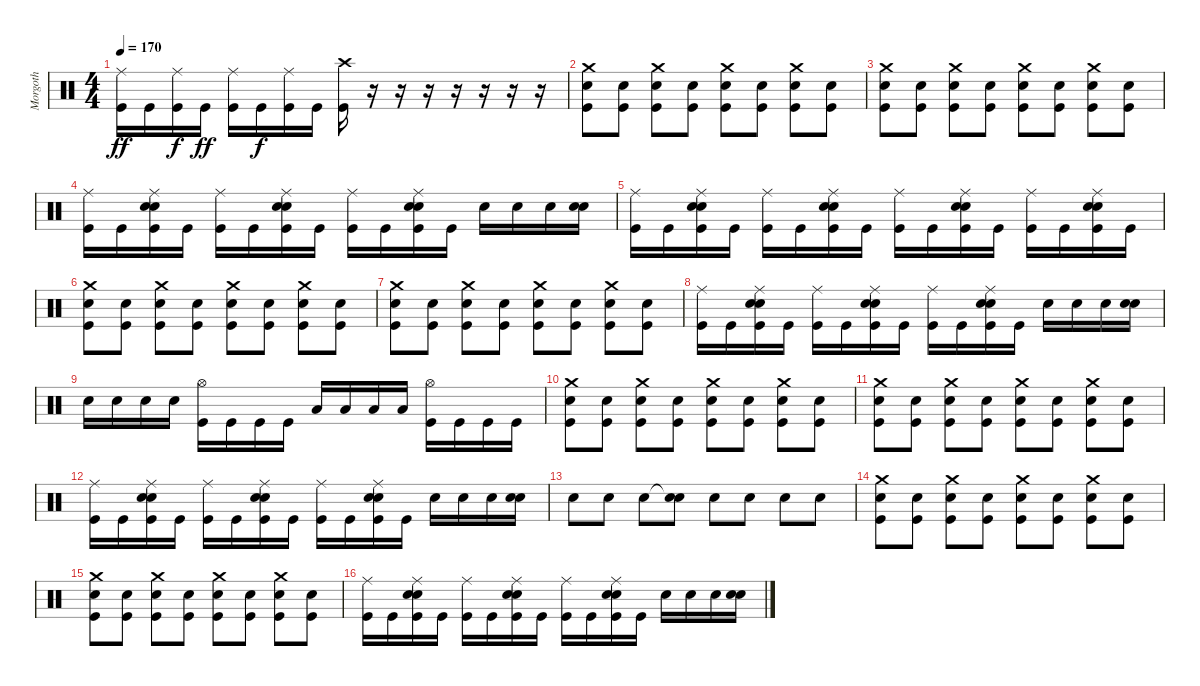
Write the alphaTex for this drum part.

\track ("Morgoth" "Morgoth") {instrument percussion}
\staff {score}
\articulation defaults
\ts (4 4)
\tempo 170
\clef neutral
\ks c
("Ride (middle)" "Kick (hit)").16{dy ff} "Kick (hit)".16 ("Ride (middle)" "Kick (hit)").16{dy f} "Kick (hit)".16{dy ff} ("Ride (middle)" "Kick (hit)").16 "Kick (hit)".16{dy f} ("Ride (middle)" "Kick (hit)").16 "Kick (hit)".16 ("Crash high (hit)" "Kick (hit)").16 r.16 r.16 r.16 r.16 r.16 r.16 r.16 |
("Snare (hit) 2" "Crash medium (hit)" "Kick (hit)").8 ("Snare (hit) 2" "Kick (hit)").8 ("Snare (hit) 2" "Crash medium (hit)" "Kick (hit)").8 ("Snare (hit) 2" "Kick (hit)").8 ("Snare (hit) 2" "Crash medium (hit)" "Kick (hit)").8 ("Snare (hit) 2" "Kick (hit)").8 ("Snare (hit) 2" "Crash medium (hit)" "Kick (hit)").8 ("Snare (hit) 2" "Kick (hit)").8 |
("Snare (hit) 2" "Crash medium (hit)" "Kick (hit)").8 ("Snare (hit) 2" "Kick (hit)").8 ("Snare (hit) 2" "Crash medium (hit)" "Kick (hit)").8 ("Snare (hit) 2" "Kick (hit)").8 ("Snare (hit) 2" "Crash medium (hit)" "Kick (hit)").8 ("Snare (hit) 2" "Kick (hit)").8 ("Snare (hit) 2" "Crash medium (hit)" "Kick (hit)").8 ("Snare (hit) 2" "Kick (hit)").8 |
("Ride (middle)" "Kick (hit)").16 "Kick (hit)".16 ("Snare (hit) 2" "Snare (hit) 2" "Ride (middle)" "Kick (hit)").16 "Kick (hit)".16 ("Ride (middle)" "Kick (hit)").16 "Kick (hit)".16 ("Snare (hit) 2" "Snare (hit) 2" "Ride (middle)" "Kick (hit)").16 "Kick (hit)".16 ("Ride (middle)" "Kick (hit)").16 "Kick (hit)".16 ("Snare (hit) 2" "Snare (hit) 2" "Ride (middle)" "Kick (hit)").16 "Kick (hit)".16 "Snare (hit) 2".16 "Snare (hit) 2".16 "Snare (hit) 2".16 ("Snare (hit) 2" "Snare (hit) 2").16 |
("Ride (middle)" "Kick (hit)").16 "Kick (hit)".16 ("Snare (hit) 2" "Snare (hit) 2" "Ride (middle)" "Kick (hit)").16 "Kick (hit)".16 ("Ride (middle)" "Kick (hit)").16 "Kick (hit)".16 ("Snare (hit) 2" "Snare (hit) 2" "Ride (middle)" "Kick (hit)").16 "Kick (hit)".16 ("Ride (middle)" "Kick (hit)").16 "Kick (hit)".16 ("Snare (hit) 2" "Snare (hit) 2" "Ride (middle)" "Kick (hit)").16 "Kick (hit)".16 ("Ride (middle)" "Kick (hit)").16 "Kick (hit)".16 ("Snare (hit) 2" "Snare (hit) 2" "Ride (middle)" "Kick (hit)").16 "Kick (hit)".16 |
("Snare (hit) 2" "Crash medium (hit)" "Kick (hit)").8 ("Snare (hit) 2" "Kick (hit)").8 ("Snare (hit) 2" "Crash medium (hit)" "Kick (hit)").8 ("Snare (hit) 2" "Kick (hit)").8 ("Snare (hit) 2" "Crash medium (hit)" "Kick (hit)").8 ("Snare (hit) 2" "Kick (hit)").8 ("Snare (hit) 2" "Crash medium (hit)" "Kick (hit)").8 ("Snare (hit) 2" "Kick (hit)").8 |
("Snare (hit) 2" "Crash medium (hit)" "Kick (hit)").8 ("Snare (hit) 2" "Kick (hit)").8 ("Snare (hit) 2" "Crash medium (hit)" "Kick (hit)").8 ("Snare (hit) 2" "Kick (hit)").8 ("Snare (hit) 2" "Crash medium (hit)" "Kick (hit)").8 ("Snare (hit) 2" "Kick (hit)").8 ("Snare (hit) 2" "Crash medium (hit)" "Kick (hit)").8 ("Snare (hit) 2" "Kick (hit)").8 |
("Ride (middle)" "Kick (hit)").16 "Kick (hit)".16 ("Snare (hit) 2" "Snare (hit) 2" "Ride (middle)" "Kick (hit)").16 "Kick (hit)".16 ("Ride (middle)" "Kick (hit)").16 "Kick (hit)".16 ("Snare (hit) 2" "Snare (hit) 2" "Ride (middle)" "Kick (hit)").16 "Kick (hit)".16 ("Ride (middle)" "Kick (hit)").16 "Kick (hit)".16 ("Snare (hit) 2" "Snare (hit) 2" "Ride (middle)" "Kick (hit)").16 "Kick (hit)".16 "Snare (hit) 2".16 "Snare (hit) 2".16 "Snare (hit) 2".16 ("Snare (hit) 2" "Snare (hit) 2").16 |
"Snare (hit) 2".16 "Snare (hit) 2".16 "Snare (hit) 2".16 "Snare (hit) 2".16 ("Hi-Hat (open)" "Kick (hit)").16 "Kick (hit)".16 "Kick (hit)".16 "Kick (hit)".16 "Low Tom (hit)".16 "Low Tom (hit)".16 "Low Tom (hit)".16 "Low Tom (hit)".16 ("Hi-Hat (open)" "Kick (hit)").16 "Kick (hit)".16 "Kick (hit)".16 "Kick (hit)".16 |
("Snare (hit) 2" "Crash medium (hit)" "Kick (hit)").8 ("Snare (hit) 2" "Kick (hit)").8 ("Snare (hit) 2" "Crash medium (hit)" "Kick (hit)").8 ("Snare (hit) 2" "Kick (hit)").8 ("Snare (hit) 2" "Crash medium (hit)" "Kick (hit)").8 ("Snare (hit) 2" "Kick (hit)").8 ("Snare (hit) 2" "Crash medium (hit)" "Kick (hit)").8 ("Snare (hit) 2" "Kick (hit)").8 |
("Snare (hit) 2" "Crash medium (hit)" "Kick (hit)").8 ("Snare (hit) 2" "Kick (hit)").8 ("Snare (hit) 2" "Crash medium (hit)" "Kick (hit)").8 ("Snare (hit) 2" "Kick (hit)").8 ("Snare (hit) 2" "Crash medium (hit)" "Kick (hit)").8 ("Snare (hit) 2" "Kick (hit)").8 ("Snare (hit) 2" "Crash medium (hit)" "Kick (hit)").8 ("Snare (hit) 2" "Kick (hit)").8 |
("Ride (middle)" "Kick (hit)").16 "Kick (hit)".16 ("Snare (hit) 2" "Snare (hit) 2" "Ride (middle)" "Kick (hit)").16 "Kick (hit)".16 ("Ride (middle)" "Kick (hit)").16 "Kick (hit)".16 ("Snare (hit) 2" "Snare (hit) 2" "Ride (middle)" "Kick (hit)").16 "Kick (hit)".16 ("Ride (middle)" "Kick (hit)").16 "Kick (hit)".16 ("Snare (hit) 2" "Snare (hit) 2" "Ride (middle)" "Kick (hit)").16 "Kick (hit)".16 "Snare (hit) 2".16 "Snare (hit) 2".16 "Snare (hit) 2".16 ("Snare (hit) 2" "Snare (hit) 2").16 |
"Snare (hit) 2".8 "Snare (hit) 2".8 "Snare (hit) 2".8 ("Snare (hit)"{t} "Snare (hit) 2").8 "Snare (hit) 2".8 "Snare (hit) 2".8 "Snare (hit) 2".8 "Snare (hit) 2".8 |
("Snare (hit) 2" "Crash medium (hit)" "Kick (hit)").8 ("Snare (hit) 2" "Kick (hit)").8 ("Snare (hit) 2" "Crash medium (hit)" "Kick (hit)").8 ("Snare (hit) 2" "Kick (hit)").8 ("Snare (hit) 2" "Crash medium (hit)" "Kick (hit)").8 ("Snare (hit) 2" "Kick (hit)").8 ("Snare (hit) 2" "Crash medium (hit)" "Kick (hit)").8 ("Snare (hit) 2" "Kick (hit)").8 |
("Snare (hit) 2" "Crash medium (hit)" "Kick (hit)").8 ("Snare (hit) 2" "Kick (hit)").8 ("Snare (hit) 2" "Crash medium (hit)" "Kick (hit)").8 ("Snare (hit) 2" "Kick (hit)").8 ("Snare (hit) 2" "Crash medium (hit)" "Kick (hit)").8 ("Snare (hit) 2" "Kick (hit)").8 ("Snare (hit) 2" "Crash medium (hit)" "Kick (hit)").8 ("Snare (hit) 2" "Kick (hit)").8 |
("Ride (middle)" "Kick (hit)").16 "Kick (hit)".16 ("Snare (hit) 2" "Snare (hit) 2" "Ride (middle)" "Kick (hit)").16 "Kick (hit)".16 ("Ride (middle)" "Kick (hit)").16 "Kick (hit)".16 ("Snare (hit) 2" "Snare (hit) 2" "Ride (middle)" "Kick (hit)").16 "Kick (hit)".16 ("Ride (middle)" "Kick (hit)").16 "Kick (hit)".16 ("Snare (hit) 2" "Snare (hit) 2" "Ride (middle)" "Kick (hit)").16 "Kick (hit)".16 "Snare (hit) 2".16 "Snare (hit) 2".16 "Snare (hit) 2".16 ("Snare (hit) 2" "Snare (hit) 2").16
